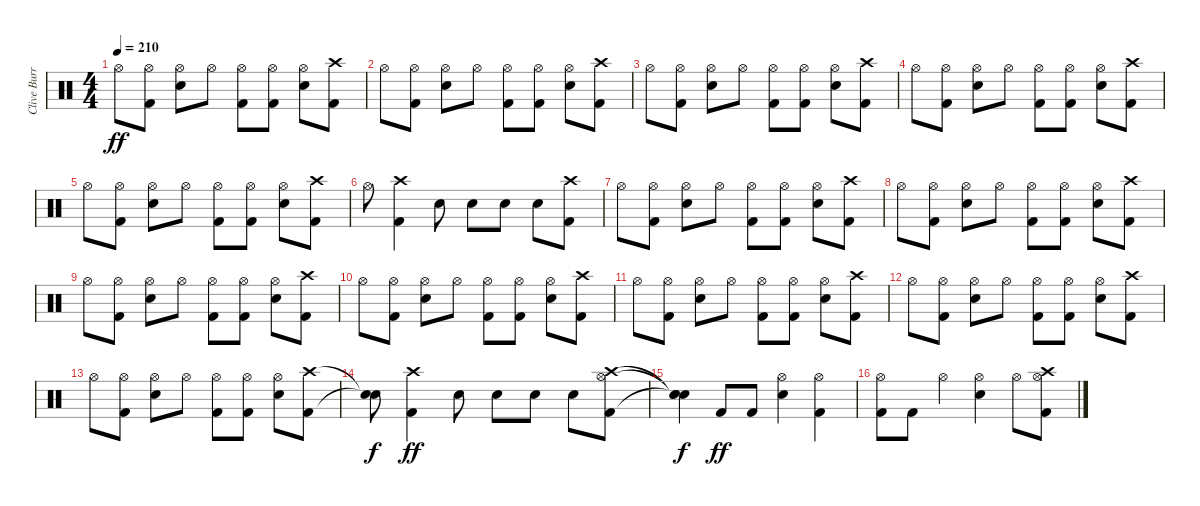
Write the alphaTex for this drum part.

\track ("Clive Burr" "Clive Burr") {instrument percussion}
\staff {score}
\articulation defaults
\ts (4 4)
\tempo 210
\clef neutral
\ks c "Hi-Hat (open)".8{dy ff}
("Kick (hit) 2" "Hi-Hat (open)").8 ("Snare (hit) 2" "Hi-Hat (open)").8 "Hi-Hat (open)".8 ("Kick (hit) 2" "Hi-Hat (open)").8 ("Kick (hit) 2" "Hi-Hat (open)").8 ("Snare (hit) 2" "Hi-Hat (open)").8 ("Kick (hit) 2" "Crash high (hit)").8 |
"Hi-Hat (open)".8 ("Kick (hit) 2" "Hi-Hat (open)").8 ("Snare (hit) 2" "Hi-Hat (open)").8 "Hi-Hat (open)".8 ("Kick (hit) 2" "Hi-Hat (open)").8 ("Kick (hit) 2" "Hi-Hat (open)").8 ("Snare (hit) 2" "Hi-Hat (open)").8 ("Kick (hit) 2" "Crash high (hit)").8 |
"Hi-Hat (open)".8 ("Kick (hit) 2" "Hi-Hat (open)").8 ("Snare (hit) 2" "Hi-Hat (open)").8 "Hi-Hat (open)".8 ("Kick (hit) 2" "Hi-Hat (open)").8 ("Kick (hit) 2" "Hi-Hat (open)").8 ("Snare (hit) 2" "Hi-Hat (open)").8 ("Kick (hit) 2" "Crash high (hit)").8 |
"Hi-Hat (open)".8 ("Kick (hit) 2" "Hi-Hat (open)").8 ("Snare (hit) 2" "Hi-Hat (open)").8 "Hi-Hat (open)".8 ("Kick (hit) 2" "Hi-Hat (open)").8 ("Kick (hit) 2" "Hi-Hat (open)").8 ("Snare (hit) 2" "Hi-Hat (open)").8 ("Kick (hit) 2" "Crash high (hit)").8 |
"Hi-Hat (open)".8 ("Kick (hit) 2" "Hi-Hat (open)").8 ("Snare (hit) 2" "Hi-Hat (open)").8 "Hi-Hat (open)".8 ("Kick (hit) 2" "Hi-Hat (open)").8 ("Kick (hit) 2" "Hi-Hat (open)").8 ("Snare (hit) 2" "Hi-Hat (open)").8 ("Kick (hit) 2" "Crash high (hit)").8 |
"Hi-Hat (open)".8 ("Kick (hit) 2" "Crash high (hit)").4 "Snare (hit) 2".8 "Snare (hit) 2".8 "Snare (hit) 2".8 "Snare (hit) 2".8 ("Kick (hit) 2" "Crash high (hit)").8 |
"Hi-Hat (open)".8 ("Kick (hit) 2" "Hi-Hat (open)").8 ("Snare (hit) 2" "Hi-Hat (open)").8 "Hi-Hat (open)".8 ("Kick (hit) 2" "Hi-Hat (open)").8 ("Kick (hit) 2" "Hi-Hat (open)").8 ("Snare (hit) 2" "Hi-Hat (open)").8 ("Kick (hit) 2" "Crash high (hit)").8 |
"Hi-Hat (open)".8 ("Kick (hit) 2" "Hi-Hat (open)").8 ("Snare (hit) 2" "Hi-Hat (open)").8 "Hi-Hat (open)".8 ("Kick (hit) 2" "Hi-Hat (open)").8 ("Kick (hit) 2" "Hi-Hat (open)").8 ("Snare (hit) 2" "Hi-Hat (open)").8 ("Kick (hit) 2" "Crash high (hit)").8 |
"Hi-Hat (open)".8 ("Kick (hit) 2" "Hi-Hat (open)").8 ("Snare (hit) 2" "Hi-Hat (open)").8 "Hi-Hat (open)".8 ("Kick (hit) 2" "Hi-Hat (open)").8 ("Kick (hit) 2" "Hi-Hat (open)").8 ("Snare (hit) 2" "Hi-Hat (open)").8 ("Kick (hit) 2" "Crash high (hit)").8 |
"Hi-Hat (open)".8 ("Kick (hit) 2" "Hi-Hat (open)").8 ("Snare (hit) 2" "Hi-Hat (open)").8 "Hi-Hat (open)".8 ("Kick (hit) 2" "Hi-Hat (open)").8 ("Kick (hit) 2" "Hi-Hat (open)").8 ("Snare (hit) 2" "Hi-Hat (open)").8 ("Kick (hit) 2" "Crash high (hit)").8 |
"Hi-Hat (open)".8 ("Kick (hit) 2" "Hi-Hat (open)").8 ("Snare (hit) 2" "Hi-Hat (open)").8 "Hi-Hat (open)".8 ("Kick (hit) 2" "Hi-Hat (open)").8 ("Kick (hit) 2" "Hi-Hat (open)").8 ("Snare (hit) 2" "Hi-Hat (open)").8 ("Kick (hit) 2" "Crash high (hit)").8 |
"Hi-Hat (open)".8 ("Kick (hit) 2" "Hi-Hat (open)").8 ("Snare (hit) 2" "Hi-Hat (open)").8 "Hi-Hat (open)".8 ("Kick (hit) 2" "Hi-Hat (open)").8 ("Kick (hit) 2" "Hi-Hat (open)").8 ("Snare (hit) 2" "Hi-Hat (open)").8 ("Kick (hit) 2" "Crash high (hit)").8 |
"Hi-Hat (open)".8 ("Kick (hit) 2" "Hi-Hat (open)").8 ("Snare (hit) 2" "Hi-Hat (open)").8 "Hi-Hat (open)".8 ("Kick (hit) 2" "Hi-Hat (open)").8 ("Kick (hit) 2" "Hi-Hat (open)").8 ("Snare (hit) 2" "Hi-Hat (open)").8 ("Kick (hit) 2" "Crash high (hit)").8 |
("Snare (hit)"{t} "Snare (hit)"{t}).8{dy f} ("Kick (hit) 2" "Crash high (hit)").4{dy ff} "Snare (hit) 2".8 "Snare (hit) 2".8 "Snare (hit) 2".8 "Snare (hit) 2".8 ("Kick (hit) 2" "Hi-Hat (open)" "Crash high (hit)").8 |
("Snare (hit)"{t} "Snare (hit)"{t} "Snare (hit)"{t}).4{dy f} "Kick (hit) 2".8{dy ff} "Kick (hit) 2".8 ("Snare (hit) 2" "Hi-Hat (open)").4 ("Kick (hit) 2" "Hi-Hat (open)").4 |
("Kick (hit) 2" "Hi-Hat (open)").8 "Kick (hit) 2".8 "Hi-Hat (open)".4 ("Snare (hit) 2" "Hi-Hat (open)").4 "Hi-Hat (open)".8 ("Kick (hit) 2" "Hi-Hat (open)" "Crash high (hit)").8
